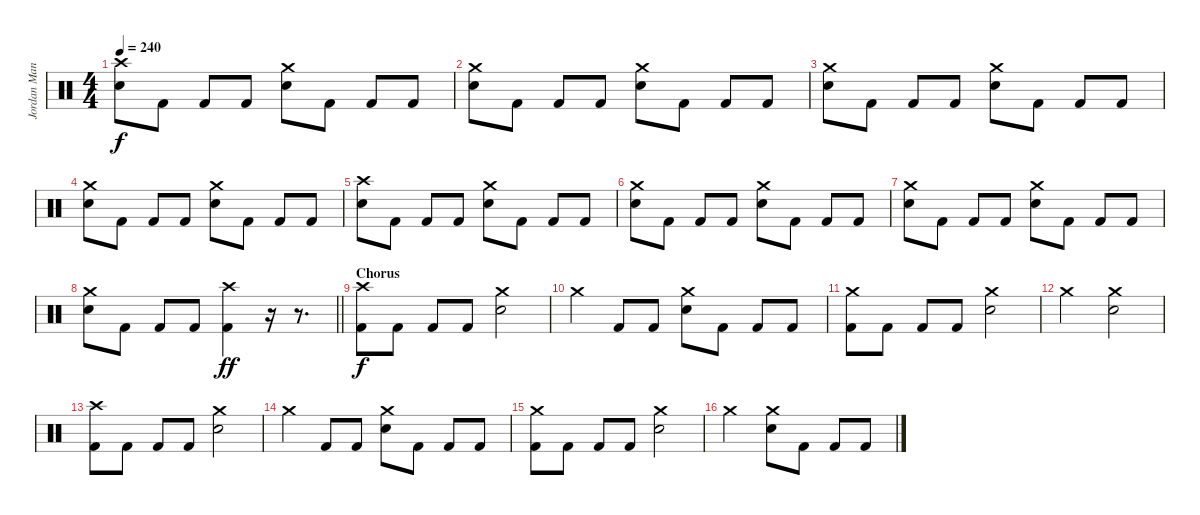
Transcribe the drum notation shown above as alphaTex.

\track ("Jordan Mancino" "Jordan Man") {instrument percussion}
\staff {score}
\articulation defaults
\ts (4 4)
\tempo 240
\clef neutral
\ks c
("Crash high (hit)" "Electric Snare (hit)").8{dy f} "Kick (hit) 2".8 "Kick (hit) 2".8 "Kick (hit) 2".8 ("Crash medium (hit)" "Electric Snare (hit)").8 "Kick (hit) 2".8 "Kick (hit) 2".8 "Kick (hit) 2".8 |
("Crash medium (hit)" "Electric Snare (hit)").8 "Kick (hit) 2".8 "Kick (hit) 2".8 "Kick (hit) 2".8 ("Crash medium (hit)" "Electric Snare (hit)").8 "Kick (hit) 2".8 "Kick (hit) 2".8 "Kick (hit) 2".8 |
("Crash medium (hit)" "Electric Snare (hit)").8 "Kick (hit) 2".8 "Kick (hit) 2".8 "Kick (hit) 2".8 ("Crash medium (hit)" "Electric Snare (hit)").8 "Kick (hit) 2".8 "Kick (hit) 2".8 "Kick (hit) 2".8 |
("Crash medium (hit)" "Electric Snare (hit)").8 "Kick (hit) 2".8 "Kick (hit) 2".8 "Kick (hit) 2".8 ("Crash medium (hit)" "Electric Snare (hit)").8 "Kick (hit) 2".8 "Kick (hit) 2".8 "Kick (hit) 2".8 |
("Crash high (hit)" "Electric Snare (hit)").8 "Kick (hit) 2".8 "Kick (hit) 2".8 "Kick (hit) 2".8 ("Crash medium (hit)" "Electric Snare (hit)").8 "Kick (hit) 2".8 "Kick (hit) 2".8 "Kick (hit) 2".8 |
("Crash medium (hit)" "Electric Snare (hit)").8 "Kick (hit) 2".8 "Kick (hit) 2".8 "Kick (hit) 2".8 ("Crash medium (hit)" "Electric Snare (hit)").8 "Kick (hit) 2".8 "Kick (hit) 2".8 "Kick (hit) 2".8 |
("Crash medium (hit)" "Electric Snare (hit)").8 "Kick (hit) 2".8 "Kick (hit) 2".8 "Kick (hit) 2".8 ("Crash medium (hit)" "Electric Snare (hit)").8 "Kick (hit) 2".8 "Kick (hit) 2".8 "Kick (hit) 2".8 |
\barLineRight lightlight
("Crash medium (hit)" "Electric Snare (hit)").8 "Kick (hit) 2".8 "Kick (hit) 2".8 "Kick (hit) 2".8 ("Crash high (hit)" "Kick (hit) 2").4{dy ff} r.16{volume 0} r.8{d} |
\section ("" "Chorus")
("Crash high (hit)" "Kick (hit) 2").8{dy f volume 16} "Kick (hit) 2".8 "Kick (hit) 2".8 "Kick (hit) 2".8 ("Crash medium (hit)" "Electric Snare (hit)").2 |
"Crash medium (hit)".4 "Kick (hit) 2".8 "Kick (hit) 2".8 ("Crash medium (hit)" "Electric Snare (hit)").8 "Kick (hit) 2".8 "Kick (hit) 2".8 "Kick (hit) 2".8 |
("Crash medium (hit)" "Kick (hit) 2").8 "Kick (hit) 2".8 "Kick (hit) 2".8 "Kick (hit) 2".8 ("Crash medium (hit)" "Electric Snare (hit)").2 |
"Crash medium (hit)".2 ("Crash medium (hit)" "Electric Snare (hit)").2 |
("Crash high (hit)" "Kick (hit) 2").8 "Kick (hit) 2".8 "Kick (hit) 2".8 "Kick (hit) 2".8 ("Crash medium (hit)" "Electric Snare (hit)").2 |
"Crash medium (hit)".4 "Kick (hit) 2".8 "Kick (hit) 2".8 ("Crash medium (hit)" "Electric Snare (hit)").8 "Kick (hit) 2".8 "Kick (hit) 2".8 "Kick (hit) 2".8 |
("Crash medium (hit)" "Kick (hit) 2").8 "Kick (hit) 2".8 "Kick (hit) 2".8 "Kick (hit) 2".8 ("Crash medium (hit)" "Electric Snare (hit)").2 |
"Crash medium (hit)".2 ("Crash medium (hit)" "Electric Snare (hit)").8 "Kick (hit) 2".8 "Kick (hit) 2".8 "Kick (hit) 2".8
